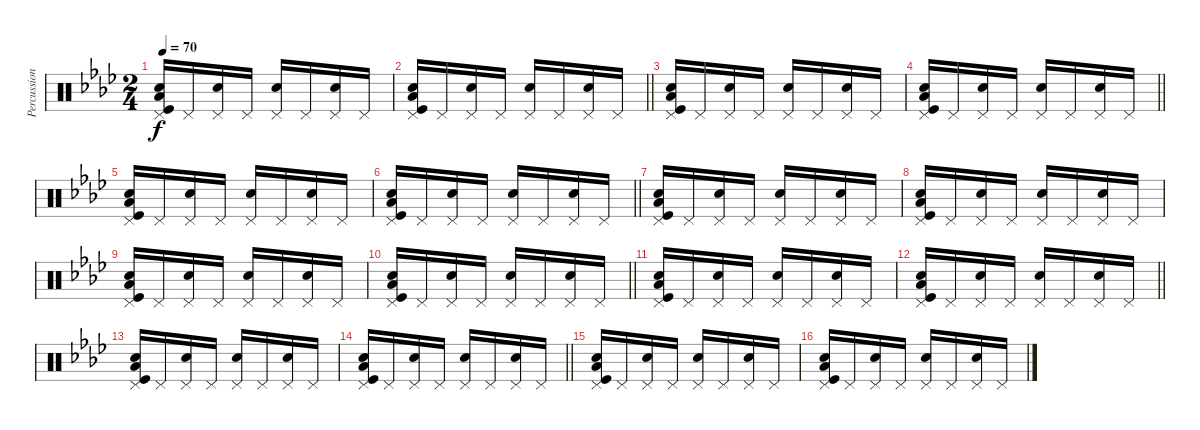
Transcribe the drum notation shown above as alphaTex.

\track ("Percussions" "Percussion") {instrument percussion}
\staff {score}
\articulation defaults
\ts (2 4)
\tempo 70
\clef neutral
\ks fminor
("Electric Snare (hit)" "Kick (hit)" "Pedal Hi-Hat (hit)" "Low Floor Tom (hit)").16{dy f} "Pedal Hi-Hat (hit)".16 ("Electric Snare (hit)" "Pedal Hi-Hat (hit)").16 "Pedal Hi-Hat (hit)".16 ("Electric Snare (hit)" "Pedal Hi-Hat (hit)").16 "Pedal Hi-Hat (hit)".16 ("Electric Snare (hit)" "Pedal Hi-Hat (hit)").16 "Pedal Hi-Hat (hit)".16 |
\barLineRight lightlight
("Electric Snare (hit)" "Kick (hit)" "Pedal Hi-Hat (hit)" "Low Floor Tom (hit)").16 "Pedal Hi-Hat (hit)".16 ("Electric Snare (hit)" "Pedal Hi-Hat (hit)").16 "Pedal Hi-Hat (hit)".16 ("Electric Snare (hit)" "Pedal Hi-Hat (hit)").16 "Pedal Hi-Hat (hit)".16 ("Electric Snare (hit)" "Pedal Hi-Hat (hit)").16 "Pedal Hi-Hat (hit)".16 |
("Electric Snare (hit)" "Kick (hit)" "Pedal Hi-Hat (hit)" "Low Floor Tom (hit)").16 "Pedal Hi-Hat (hit)".16 ("Electric Snare (hit)" "Pedal Hi-Hat (hit)").16 "Pedal Hi-Hat (hit)".16 ("Electric Snare (hit)" "Pedal Hi-Hat (hit)").16 "Pedal Hi-Hat (hit)".16 ("Electric Snare (hit)" "Pedal Hi-Hat (hit)").16 "Pedal Hi-Hat (hit)".16 |
\barLineRight lightlight
("Electric Snare (hit)" "Kick (hit)" "Pedal Hi-Hat (hit)" "Low Floor Tom (hit)").16 "Pedal Hi-Hat (hit)".16 ("Electric Snare (hit)" "Pedal Hi-Hat (hit)").16 "Pedal Hi-Hat (hit)".16 ("Electric Snare (hit)" "Pedal Hi-Hat (hit)").16 "Pedal Hi-Hat (hit)".16 ("Electric Snare (hit)" "Pedal Hi-Hat (hit)").16 "Pedal Hi-Hat (hit)".16 |
("Electric Snare (hit)" "Kick (hit)" "Pedal Hi-Hat (hit)" "Low Floor Tom (hit)").16 "Pedal Hi-Hat (hit)".16 ("Electric Snare (hit)" "Pedal Hi-Hat (hit)").16 "Pedal Hi-Hat (hit)".16 ("Electric Snare (hit)" "Pedal Hi-Hat (hit)").16 "Pedal Hi-Hat (hit)".16 ("Electric Snare (hit)" "Pedal Hi-Hat (hit)").16 "Pedal Hi-Hat (hit)".16 |
\barLineRight lightlight
("Electric Snare (hit)" "Kick (hit)" "Pedal Hi-Hat (hit)" "Low Floor Tom (hit)").16 "Pedal Hi-Hat (hit)".16 ("Electric Snare (hit)" "Pedal Hi-Hat (hit)").16 "Pedal Hi-Hat (hit)".16 ("Electric Snare (hit)" "Pedal Hi-Hat (hit)").16 "Pedal Hi-Hat (hit)".16 ("Electric Snare (hit)" "Pedal Hi-Hat (hit)").16 "Pedal Hi-Hat (hit)".16 |
("Electric Snare (hit)" "Kick (hit)" "Pedal Hi-Hat (hit)" "Low Floor Tom (hit)").16 "Pedal Hi-Hat (hit)".16 ("Electric Snare (hit)" "Pedal Hi-Hat (hit)").16 "Pedal Hi-Hat (hit)".16 ("Electric Snare (hit)" "Pedal Hi-Hat (hit)").16 "Pedal Hi-Hat (hit)".16 ("Electric Snare (hit)" "Pedal Hi-Hat (hit)").16 "Pedal Hi-Hat (hit)".16 |
("Electric Snare (hit)" "Kick (hit)" "Pedal Hi-Hat (hit)" "Low Floor Tom (hit)").16 "Pedal Hi-Hat (hit)".16 ("Electric Snare (hit)" "Pedal Hi-Hat (hit)").16 "Pedal Hi-Hat (hit)".16 ("Electric Snare (hit)" "Pedal Hi-Hat (hit)").16 "Pedal Hi-Hat (hit)".16 ("Electric Snare (hit)" "Pedal Hi-Hat (hit)").16 "Pedal Hi-Hat (hit)".16 |
("Electric Snare (hit)" "Kick (hit)" "Pedal Hi-Hat (hit)" "Low Floor Tom (hit)").16 "Pedal Hi-Hat (hit)".16 ("Electric Snare (hit)" "Pedal Hi-Hat (hit)").16 "Pedal Hi-Hat (hit)".16 ("Electric Snare (hit)" "Pedal Hi-Hat (hit)").16 "Pedal Hi-Hat (hit)".16 ("Electric Snare (hit)" "Pedal Hi-Hat (hit)").16 "Pedal Hi-Hat (hit)".16 |
\barLineRight lightlight
("Electric Snare (hit)" "Kick (hit)" "Pedal Hi-Hat (hit)" "Low Floor Tom (hit)").16 "Pedal Hi-Hat (hit)".16 ("Electric Snare (hit)" "Pedal Hi-Hat (hit)").16 "Pedal Hi-Hat (hit)".16 ("Electric Snare (hit)" "Pedal Hi-Hat (hit)").16 "Pedal Hi-Hat (hit)".16 ("Electric Snare (hit)" "Pedal Hi-Hat (hit)").16 "Pedal Hi-Hat (hit)".16 |
("Electric Snare (hit)" "Kick (hit)" "Pedal Hi-Hat (hit)" "Low Floor Tom (hit)").16 "Pedal Hi-Hat (hit)".16 ("Electric Snare (hit)" "Pedal Hi-Hat (hit)").16 "Pedal Hi-Hat (hit)".16 ("Electric Snare (hit)" "Pedal Hi-Hat (hit)").16 "Pedal Hi-Hat (hit)".16 ("Electric Snare (hit)" "Pedal Hi-Hat (hit)").16 "Pedal Hi-Hat (hit)".16 |
\barLineRight lightlight
("Electric Snare (hit)" "Kick (hit)" "Pedal Hi-Hat (hit)" "Low Floor Tom (hit)").16 "Pedal Hi-Hat (hit)".16 ("Electric Snare (hit)" "Pedal Hi-Hat (hit)").16 "Pedal Hi-Hat (hit)".16 ("Electric Snare (hit)" "Pedal Hi-Hat (hit)").16 "Pedal Hi-Hat (hit)".16 ("Electric Snare (hit)" "Pedal Hi-Hat (hit)").16 "Pedal Hi-Hat (hit)".16 |
("Electric Snare (hit)" "Kick (hit)" "Pedal Hi-Hat (hit)" "Low Floor Tom (hit)").16 "Pedal Hi-Hat (hit)".16 ("Electric Snare (hit)" "Pedal Hi-Hat (hit)").16 "Pedal Hi-Hat (hit)".16 ("Electric Snare (hit)" "Pedal Hi-Hat (hit)").16 "Pedal Hi-Hat (hit)".16 ("Electric Snare (hit)" "Pedal Hi-Hat (hit)").16 "Pedal Hi-Hat (hit)".16 |
\barLineRight lightlight
("Electric Snare (hit)" "Kick (hit)" "Pedal Hi-Hat (hit)" "Low Floor Tom (hit)").16 "Pedal Hi-Hat (hit)".16 ("Electric Snare (hit)" "Pedal Hi-Hat (hit)").16 "Pedal Hi-Hat (hit)".16 ("Electric Snare (hit)" "Pedal Hi-Hat (hit)").16 "Pedal Hi-Hat (hit)".16 ("Electric Snare (hit)" "Pedal Hi-Hat (hit)").16 "Pedal Hi-Hat (hit)".16 |
("Electric Snare (hit)" "Kick (hit)" "Pedal Hi-Hat (hit)" "Low Floor Tom (hit)").16 "Pedal Hi-Hat (hit)".16 ("Electric Snare (hit)" "Pedal Hi-Hat (hit)").16 "Pedal Hi-Hat (hit)".16 ("Electric Snare (hit)" "Pedal Hi-Hat (hit)").16 "Pedal Hi-Hat (hit)".16 ("Electric Snare (hit)" "Pedal Hi-Hat (hit)").16 "Pedal Hi-Hat (hit)".16 |
("Electric Snare (hit)" "Kick (hit)" "Pedal Hi-Hat (hit)" "Low Floor Tom (hit)").16 "Pedal Hi-Hat (hit)".16 ("Electric Snare (hit)" "Pedal Hi-Hat (hit)").16 "Pedal Hi-Hat (hit)".16 ("Electric Snare (hit)" "Pedal Hi-Hat (hit)").16 "Pedal Hi-Hat (hit)".16 ("Electric Snare (hit)" "Pedal Hi-Hat (hit)").16 "Pedal Hi-Hat (hit)".16
